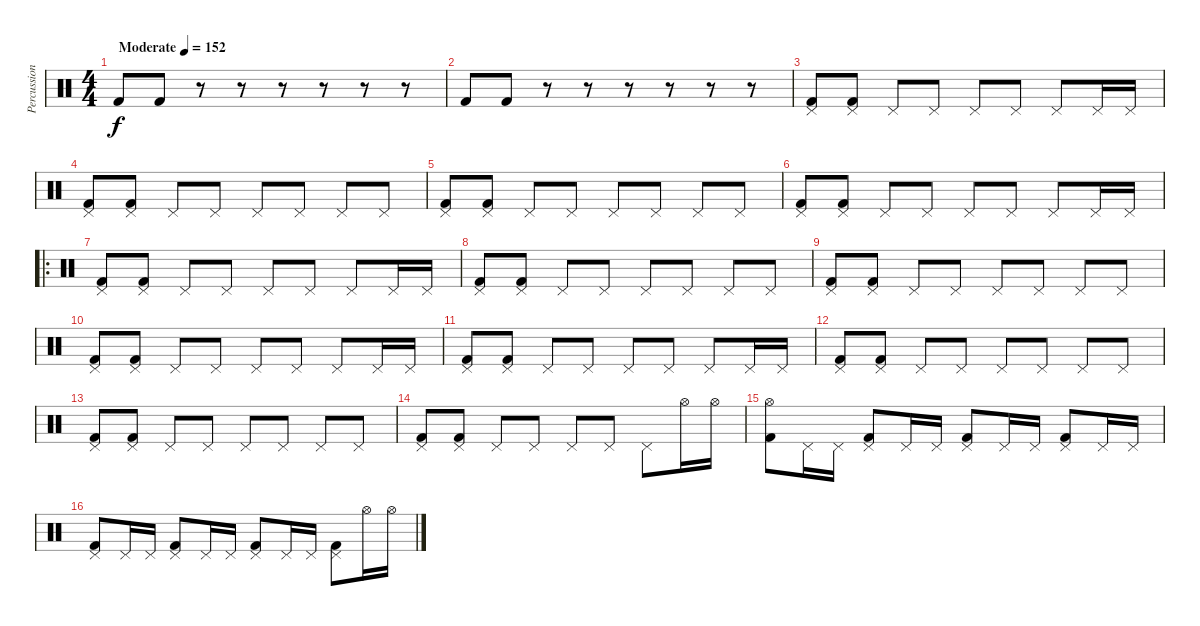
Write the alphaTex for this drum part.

\track ("Percussion" "Percussion") {instrument percussion}
\staff {score}
\articulation defaults
\ts (4 4)
\tempo (152 "Moderate")
\clef neutral
\ks c "Kick (hit) 2".8{dy f} "Kick (hit) 2".8
r.8 r.8 r.8 r.8 r.8 r.8 |
"Kick (hit) 2".8 "Kick (hit) 2".8 r.8 r.8 r.8 r.8 r.8 r.8 |
("Pedal Hi-Hat (hit)" "Kick (hit) 2").8 ("Pedal Hi-Hat (hit)" "Kick (hit) 2").8 "Pedal Hi-Hat (hit)".8 "Pedal Hi-Hat (hit)".8 "Pedal Hi-Hat (hit)".8 "Pedal Hi-Hat (hit)".8 "Pedal Hi-Hat (hit)".8 "Pedal Hi-Hat (hit)".16 "Pedal Hi-Hat (hit)".16 |
("Pedal Hi-Hat (hit)" "Kick (hit) 2").8 ("Pedal Hi-Hat (hit)" "Kick (hit) 2").8 "Pedal Hi-Hat (hit)".8 "Pedal Hi-Hat (hit)".8 "Pedal Hi-Hat (hit)".8 "Pedal Hi-Hat (hit)".8 "Pedal Hi-Hat (hit)".8 "Pedal Hi-Hat (hit)".8 |
("Pedal Hi-Hat (hit)" "Kick (hit) 2").8 ("Pedal Hi-Hat (hit)" "Kick (hit) 2").8 "Pedal Hi-Hat (hit)".8 "Pedal Hi-Hat (hit)".8 "Pedal Hi-Hat (hit)".8 "Pedal Hi-Hat (hit)".8 "Pedal Hi-Hat (hit)".8 "Pedal Hi-Hat (hit)".8 |
("Pedal Hi-Hat (hit)" "Kick (hit) 2").8 ("Pedal Hi-Hat (hit)" "Kick (hit) 2").8 "Pedal Hi-Hat (hit)".8 "Pedal Hi-Hat (hit)".8 "Pedal Hi-Hat (hit)".8 "Pedal Hi-Hat (hit)".8 "Pedal Hi-Hat (hit)".8 "Pedal Hi-Hat (hit)".16 "Pedal Hi-Hat (hit)".16 |
\ro
("Pedal Hi-Hat (hit)" "Kick (hit) 2").8 ("Pedal Hi-Hat (hit)" "Kick (hit) 2").8 "Pedal Hi-Hat (hit)".8 "Pedal Hi-Hat (hit)".8 "Pedal Hi-Hat (hit)".8 "Pedal Hi-Hat (hit)".8 "Pedal Hi-Hat (hit)".8 "Pedal Hi-Hat (hit)".16 "Pedal Hi-Hat (hit)".16 |
("Pedal Hi-Hat (hit)" "Kick (hit) 2").8 ("Pedal Hi-Hat (hit)" "Kick (hit) 2").8 "Pedal Hi-Hat (hit)".8 "Pedal Hi-Hat (hit)".8 "Pedal Hi-Hat (hit)".8 "Pedal Hi-Hat (hit)".8 "Pedal Hi-Hat (hit)".8 "Pedal Hi-Hat (hit)".8 |
("Pedal Hi-Hat (hit)" "Kick (hit) 2").8 ("Pedal Hi-Hat (hit)" "Kick (hit) 2").8 "Pedal Hi-Hat (hit)".8 "Pedal Hi-Hat (hit)".8 "Pedal Hi-Hat (hit)".8 "Pedal Hi-Hat (hit)".8 "Pedal Hi-Hat (hit)".8 "Pedal Hi-Hat (hit)".8 |
("Pedal Hi-Hat (hit)" "Kick (hit) 2").8 ("Pedal Hi-Hat (hit)" "Kick (hit) 2").8 "Pedal Hi-Hat (hit)".8 "Pedal Hi-Hat (hit)".8 "Pedal Hi-Hat (hit)".8 "Pedal Hi-Hat (hit)".8 "Pedal Hi-Hat (hit)".8 "Pedal Hi-Hat (hit)".16 "Pedal Hi-Hat (hit)".16 |
("Pedal Hi-Hat (hit)" "Kick (hit) 2").8 ("Pedal Hi-Hat (hit)" "Kick (hit) 2").8 "Pedal Hi-Hat (hit)".8 "Pedal Hi-Hat (hit)".8 "Pedal Hi-Hat (hit)".8 "Pedal Hi-Hat (hit)".8 "Pedal Hi-Hat (hit)".8 "Pedal Hi-Hat (hit)".16 "Pedal Hi-Hat (hit)".16 |
("Pedal Hi-Hat (hit)" "Kick (hit) 2").8 ("Pedal Hi-Hat (hit)" "Kick (hit) 2").8 "Pedal Hi-Hat (hit)".8 "Pedal Hi-Hat (hit)".8 "Pedal Hi-Hat (hit)".8 "Pedal Hi-Hat (hit)".8 "Pedal Hi-Hat (hit)".8 "Pedal Hi-Hat (hit)".8 |
("Pedal Hi-Hat (hit)" "Kick (hit) 2").8 ("Pedal Hi-Hat (hit)" "Kick (hit) 2").8 "Pedal Hi-Hat (hit)".8 "Pedal Hi-Hat (hit)".8 "Pedal Hi-Hat (hit)".8 "Pedal Hi-Hat (hit)".8 "Pedal Hi-Hat (hit)".8 "Pedal Hi-Hat (hit)".8 |
("Pedal Hi-Hat (hit)" "Kick (hit) 2").8 ("Pedal Hi-Hat (hit)" "Kick (hit) 2").8 "Pedal Hi-Hat (hit)".8 "Pedal Hi-Hat (hit)".8 "Pedal Hi-Hat (hit)".8 "Pedal Hi-Hat (hit)".8 "Pedal Hi-Hat (hit)".8 "Hi-Hat (open)".16 "Hi-Hat (open)".16 |
("Hi-Hat (open)" "Kick (hit) 2").8 "Pedal Hi-Hat (hit)".16 "Pedal Hi-Hat (hit)".16 ("Pedal Hi-Hat (hit)" "Kick (hit) 2").8 "Pedal Hi-Hat (hit)".16 "Pedal Hi-Hat (hit)".16 ("Pedal Hi-Hat (hit)" "Kick (hit) 2").8 "Pedal Hi-Hat (hit)".16 "Pedal Hi-Hat (hit)".16 ("Pedal Hi-Hat (hit)" "Kick (hit) 2").8 "Pedal Hi-Hat (hit)".16 "Pedal Hi-Hat (hit)".16 |
("Pedal Hi-Hat (hit)" "Kick (hit) 2").8 "Pedal Hi-Hat (hit)".16 "Pedal Hi-Hat (hit)".16 ("Pedal Hi-Hat (hit)" "Kick (hit) 2").8 "Pedal Hi-Hat (hit)".16 "Pedal Hi-Hat (hit)".16 ("Pedal Hi-Hat (hit)" "Kick (hit) 2").8 "Pedal Hi-Hat (hit)".16 "Pedal Hi-Hat (hit)".16 ("Pedal Hi-Hat (hit)" "Kick (hit) 2").8 "Hi-Hat (open)".16 "Hi-Hat (open)".16
